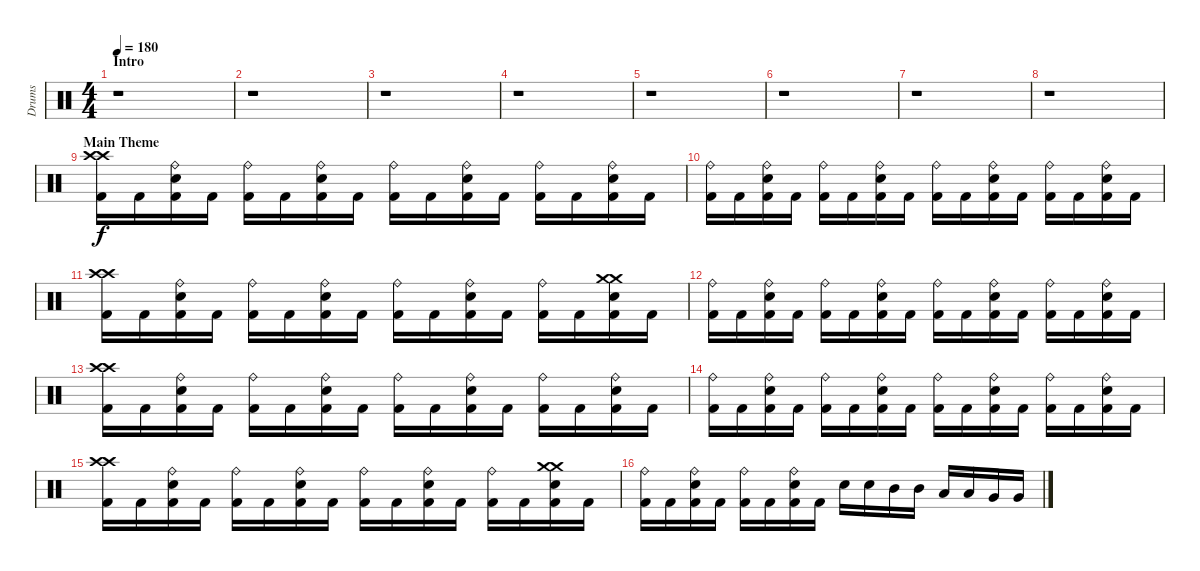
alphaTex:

\track ("Drums" "Drums") {instrument percussion}
\staff {score}
\articulation defaults
\ts (4 4)
\section ("" "Intro")
\tempo 180
\clef neutral
\ks c
r.1{dy f} |
r.1 |
r.1 |
r.1 |
r.1 |
r.1 |
r.1 |
r.1 |
\section ("" "Main Theme")
("Crash high (hit)" "Crash high (hit)" "Kick (hit) 2").16 "Kick (hit) 2".16 ("Ride (bell)" "Snare (hit) 2" "Kick (hit) 2").16 "Kick (hit) 2".16 ("Ride (bell)" "Kick (hit) 2").16 "Kick (hit) 2".16 ("Ride (bell)" "Snare (hit) 2" "Kick (hit) 2").16 "Kick (hit) 2".16 ("Ride (bell)" "Kick (hit) 2").16 "Kick (hit) 2".16 ("Ride (bell)" "Snare (hit) 2" "Kick (hit) 2").16 "Kick (hit) 2".16 ("Ride (bell)" "Kick (hit) 2").16 "Kick (hit) 2".16 ("Ride (bell)" "Snare (hit) 2" "Kick (hit) 2").16 "Kick (hit) 2".16 |
("Ride (bell)" "Kick (hit) 2").16 "Kick (hit) 2".16 ("Ride (bell)" "Snare (hit) 2" "Kick (hit) 2").16 "Kick (hit) 2".16 ("Ride (bell)" "Kick (hit) 2").16 "Kick (hit) 2".16 ("Ride (bell)" "Snare (hit) 2" "Kick (hit) 2").16 "Kick (hit) 2".16 ("Ride (bell)" "Kick (hit) 2").16 "Kick (hit) 2".16 ("Ride (bell)" "Snare (hit) 2" "Kick (hit) 2").16 "Kick (hit) 2".16 ("Ride (bell)" "Kick (hit) 2").16 "Kick (hit) 2".16 ("Ride (bell)" "Snare (hit) 2" "Kick (hit) 2").16 "Kick (hit) 2".16 |
("Crash high (hit)" "Crash high (hit)" "Kick (hit) 2").16 "Kick (hit) 2".16 ("Ride (bell)" "Snare (hit) 2" "Kick (hit) 2").16 "Kick (hit) 2".16 ("Ride (bell)" "Kick (hit) 2").16 "Kick (hit) 2".16 ("Ride (bell)" "Snare (hit) 2" "Kick (hit) 2").16 "Kick (hit) 2".16 ("Ride (bell)" "Kick (hit) 2").16 "Kick (hit) 2".16 ("Ride (bell)" "Snare (hit) 2" "Kick (hit) 2").16 "Kick (hit) 2".16 ("Ride (bell)" "Kick (hit) 2").16 "Kick (hit) 2".16 ("Crash medium (hit)" "Crash medium (hit)" "Snare (hit) 2" "Kick (hit) 2").16 "Kick (hit) 2".16 |
("Ride (bell)" "Kick (hit) 2").16 "Kick (hit) 2".16 ("Ride (bell)" "Snare (hit) 2" "Kick (hit) 2").16 "Kick (hit) 2".16 ("Ride (bell)" "Kick (hit) 2").16 "Kick (hit) 2".16 ("Ride (bell)" "Snare (hit) 2" "Kick (hit) 2").16 "Kick (hit) 2".16 ("Ride (bell)" "Kick (hit) 2").16 "Kick (hit) 2".16 ("Ride (bell)" "Snare (hit) 2" "Kick (hit) 2").16 "Kick (hit) 2".16 ("Ride (bell)" "Kick (hit) 2").16 "Kick (hit) 2".16 ("Ride (bell)" "Snare (hit) 2" "Kick (hit) 2").16 "Kick (hit) 2".16 |
("Crash high (hit)" "Crash high (hit)" "Kick (hit) 2").16 "Kick (hit) 2".16 ("Ride (bell)" "Snare (hit) 2" "Kick (hit) 2").16 "Kick (hit) 2".16 ("Ride (bell)" "Kick (hit) 2").16 "Kick (hit) 2".16 ("Ride (bell)" "Snare (hit) 2" "Kick (hit) 2").16 "Kick (hit) 2".16 ("Ride (bell)" "Kick (hit) 2").16 "Kick (hit) 2".16 ("Ride (bell)" "Snare (hit) 2" "Kick (hit) 2").16 "Kick (hit) 2".16 ("Ride (bell)" "Kick (hit) 2").16 "Kick (hit) 2".16 ("Ride (bell)" "Snare (hit) 2" "Kick (hit) 2").16 "Kick (hit) 2".16 |
("Ride (bell)" "Kick (hit) 2").16 "Kick (hit) 2".16 ("Ride (bell)" "Snare (hit) 2" "Kick (hit) 2").16 "Kick (hit) 2".16 ("Ride (bell)" "Kick (hit) 2").16 "Kick (hit) 2".16 ("Ride (bell)" "Snare (hit) 2" "Kick (hit) 2").16 "Kick (hit) 2".16 ("Ride (bell)" "Kick (hit) 2").16 "Kick (hit) 2".16 ("Ride (bell)" "Snare (hit) 2" "Kick (hit) 2").16 "Kick (hit) 2".16 ("Ride (bell)" "Kick (hit) 2").16 "Kick (hit) 2".16 ("Ride (bell)" "Snare (hit) 2" "Kick (hit) 2").16 "Kick (hit) 2".16 |
("Crash high (hit)" "Crash high (hit)" "Kick (hit) 2").16 "Kick (hit) 2".16 ("Ride (bell)" "Snare (hit) 2" "Kick (hit) 2").16 "Kick (hit) 2".16 ("Ride (bell)" "Kick (hit) 2").16 "Kick (hit) 2".16 ("Ride (bell)" "Snare (hit) 2" "Kick (hit) 2").16 "Kick (hit) 2".16 ("Ride (bell)" "Kick (hit) 2").16 "Kick (hit) 2".16 ("Ride (bell)" "Snare (hit) 2" "Kick (hit) 2").16 "Kick (hit) 2".16 ("Ride (bell)" "Kick (hit) 2").16 "Kick (hit) 2".16 ("Crash medium (hit)" "Crash medium (hit)" "Snare (hit) 2" "Kick (hit) 2").16 "Kick (hit) 2".16 |
("Ride (bell)" "Kick (hit) 2").16 "Kick (hit) 2".16 ("Ride (bell)" "Snare (hit) 2" "Kick (hit) 2").16 "Kick (hit) 2".16 ("Ride (bell)" "Kick (hit) 2").16 "Kick (hit) 2".16 ("Ride (bell)" "Snare (hit) 2" "Kick (hit) 2").16 "Kick (hit) 2".16 "Snare (hit) 2".16 "Snare (hit) 2".16 "Mid Tom (hit)".16 "Mid Tom (hit)".16 "Low Tom (hit)".16 "Low Tom (hit)".16 "Very Low Tom (hit)".16 "Very Low Tom (hit)".16
